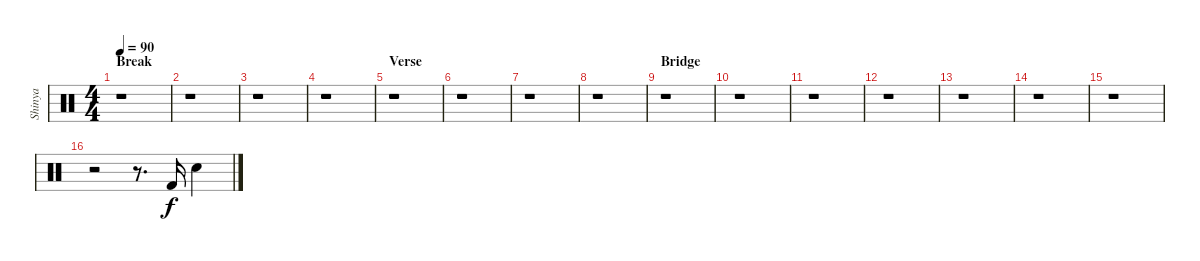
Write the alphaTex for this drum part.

\track ("Shinya" "Shinya") {instrument percussion}
\staff {score}
\articulation defaults
\ts (4 4)
\section ("" "Break")
\tempo 90
\clef neutral
\ks c
r.1{dy f} |
r.1 |
r.1 |
r.1 |
\section ("" "Verse")
r.1 |
r.1 |
r.1 |
r.1 |
\section ("" "Bridge")
r.1 |
r.1 |
r.1 |
r.1 |
r.1 |
r.1 |
r.1 |
r.2 r.8{d} "Kick (hit) 2".16 "Snare (hit) 2".4
